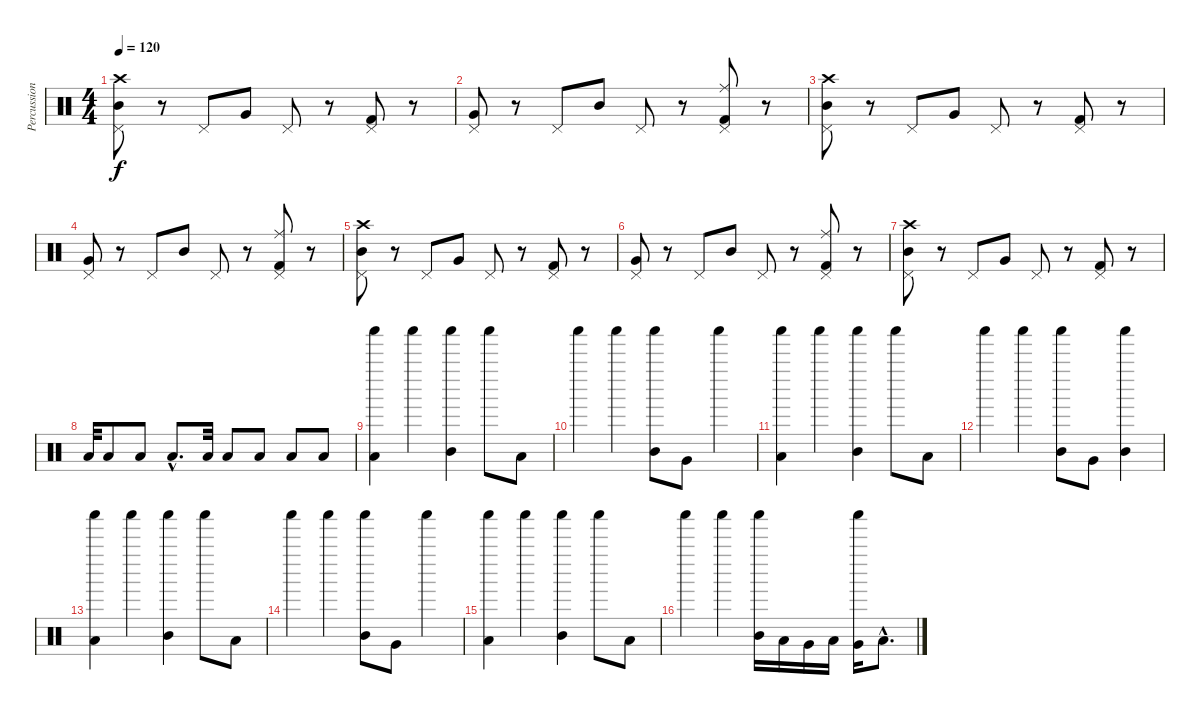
\track ("Percussion" "Percussion") {instrument percussion}
\staff {score}
\articulation defaults
\ts (4 4)
\tempo 120
\clef neutral
\ks c
("Crash high (hit)" "Mid Tom (hit)" "Pedal Hi-Hat (hit)").8{dy f} r.8 "Pedal Hi-Hat (hit)".8 "Very Low Tom (hit)".8 "Pedal Hi-Hat (hit)".8 r.8 ("Kick (hit) 2" "Pedal Hi-Hat (hit)").8 r.8 |
("Very Low Tom (hit)" "Pedal Hi-Hat (hit)").8 r.8 "Pedal Hi-Hat (hit)".8 "Mid Tom (hit)".8 "Pedal Hi-Hat (hit)".8 r.8 ("Ride (middle)" "Kick (hit) 2" "Pedal Hi-Hat (hit)").8 r.8 |
("Crash high (hit)" "Mid Tom (hit)" "Pedal Hi-Hat (hit)").8 r.8 "Pedal Hi-Hat (hit)".8 "Very Low Tom (hit)".8 "Pedal Hi-Hat (hit)".8 r.8 ("Kick (hit) 2" "Pedal Hi-Hat (hit)").8 r.8 |
("Very Low Tom (hit)" "Pedal Hi-Hat (hit)").8 r.8 "Pedal Hi-Hat (hit)".8 "Mid Tom (hit)".8 "Pedal Hi-Hat (hit)".8 r.8 ("Ride (middle)" "Kick (hit) 2" "Pedal Hi-Hat (hit)").8 r.8 |
("Crash high (hit)" "Mid Tom (hit)" "Pedal Hi-Hat (hit)").8 r.8 "Pedal Hi-Hat (hit)".8 "Very Low Tom (hit)".8 "Pedal Hi-Hat (hit)".8 r.8 ("Kick (hit) 2" "Pedal Hi-Hat (hit)").8 r.8 |
("Very Low Tom (hit)" "Pedal Hi-Hat (hit)").8 r.8 "Pedal Hi-Hat (hit)".8 "Mid Tom (hit)".8 "Pedal Hi-Hat (hit)".8 r.8 ("Ride (middle)" "Kick (hit) 2" "Pedal Hi-Hat (hit)").8 r.8 |
("Crash high (hit)" "Mid Tom (hit)" "Pedal Hi-Hat (hit)").8 r.8 "Pedal Hi-Hat (hit)".8 "Very Low Tom (hit)".8 "Pedal Hi-Hat (hit)".8 r.8 ("Kick (hit) 2" "Pedal Hi-Hat (hit)").8 r.8 |
"Low Tom (hit)".32 "Low Tom (hit)".8 "Low Tom (hit)".8 "Low Tom (hit)"{hac}.8{d} "Low Tom (hit)".32 "Low Tom (hit)".8 "Low Tom (hit)".8 "Low Tom (hit)".8 "Low Tom (hit)".8 |
("Shaker (hit)" "Low Floor Tom (hit)").4 "Shaker (hit)".4 ("Shaker (hit)" "Mid Tom (hit)").4 "Shaker (hit)".8 "Low Floor Tom (hit)".8 |
"Shaker (hit)".4 "Shaker (hit)".4 ("Shaker (hit)" "Mid Tom (hit)").8 "Very Low Tom (hit)".8 "Shaker (hit)".4 |
("Shaker (hit)" "Low Floor Tom (hit)").4 "Shaker (hit)".4 ("Shaker (hit)" "Mid Tom (hit)").4 "Shaker (hit)".8 "Low Floor Tom (hit)".8 |
"Shaker (hit)".4 "Shaker (hit)".4 ("Shaker (hit)" "Mid Tom (hit)").8 "Very Low Tom (hit)".8 ("Shaker (hit)" "Mid Tom (hit)").4 |
("Shaker (hit)" "Low Floor Tom (hit)").4 "Shaker (hit)".4 ("Shaker (hit)" "Mid Tom (hit)").4 "Shaker (hit)".8 "Low Floor Tom (hit)".8 |
"Shaker (hit)".4 "Shaker (hit)".4 ("Shaker (hit)" "Mid Tom (hit)").8 "Very Low Tom (hit)".8 "Shaker (hit)".4 |
("Shaker (hit)" "Low Floor Tom (hit)").4 "Shaker (hit)".4 ("Shaker (hit)" "Mid Tom (hit)").4 "Shaker (hit)".8 "Low Floor Tom (hit)".8 |
"Shaker (hit)".4 "Shaker (hit)".4 ("Shaker (hit)" "Mid Tom (hit)").16 "Low Tom (hit)".16 "Very Low Tom (hit)".16 "Low Tom (hit)".16 ("Shaker (hit)" "Very Low Tom (hit)").16 "Low Floor Tom (hit)"{hac}.8{d}
